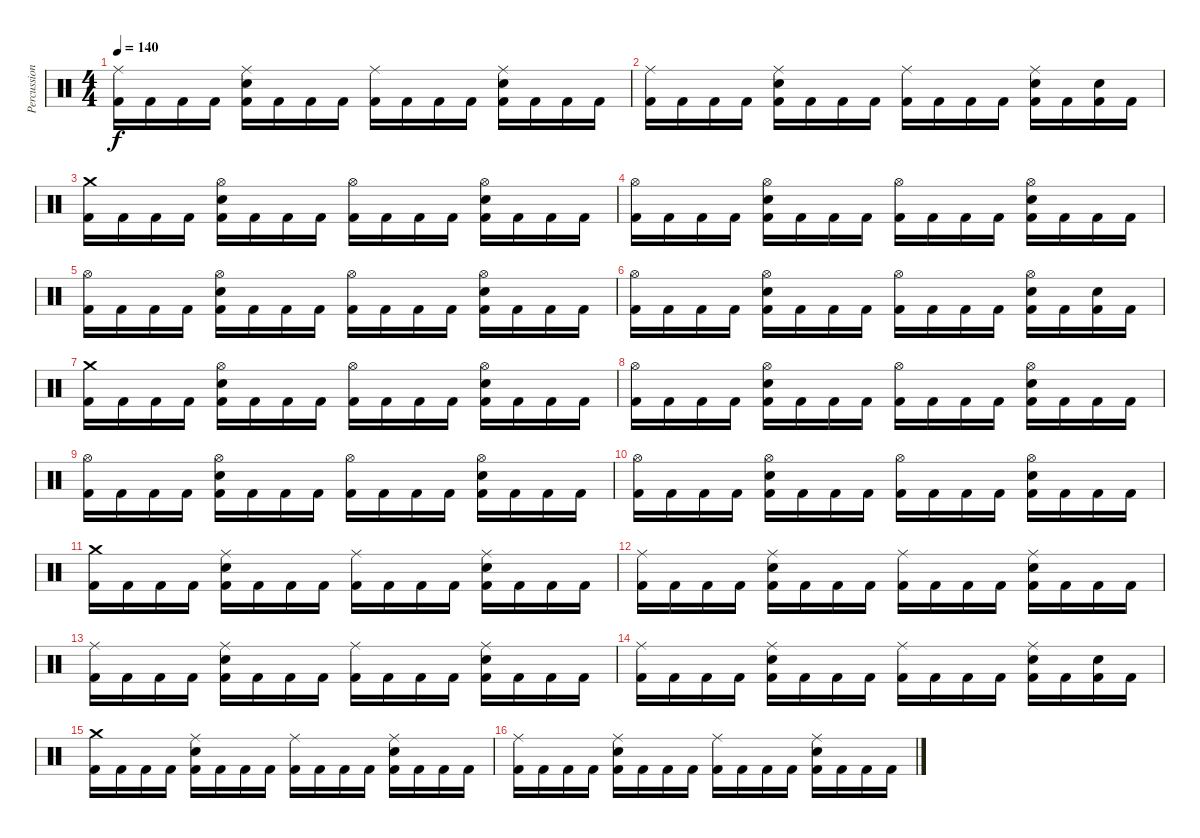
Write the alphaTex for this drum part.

\track ("Percussion" "Percussion") {instrument percussion}
\staff {score}
\articulation defaults
\ts (4 4)
\tempo 140
\clef neutral
\ks c
("Ride (middle)" "Kick (hit) 2").16{dy f} "Kick (hit) 2".16 "Kick (hit) 2".16 "Kick (hit) 2".16 ("Ride (middle)" "Electric Snare (hit)" "Kick (hit) 2").16 "Kick (hit) 2".16 "Kick (hit) 2".16 "Kick (hit) 2".16 ("Ride (middle)" "Kick (hit) 2").16 "Kick (hit) 2".16 "Kick (hit) 2".16 "Kick (hit) 2".16 ("Ride (middle)" "Electric Snare (hit)" "Kick (hit) 2").16 "Kick (hit) 2".16 "Kick (hit) 2".16 "Kick (hit) 2".16 |
("Ride (middle)" "Kick (hit) 2").16 "Kick (hit) 2".16 "Kick (hit) 2".16 "Kick (hit) 2".16 ("Ride (middle)" "Electric Snare (hit)" "Kick (hit) 2").16 "Kick (hit) 2".16 "Kick (hit) 2".16 "Kick (hit) 2".16 ("Ride (middle)" "Kick (hit) 2").16 "Kick (hit) 2".16 "Kick (hit) 2".16 "Kick (hit) 2".16 ("Ride (middle)" "Electric Snare (hit)" "Kick (hit) 2").16 "Kick (hit) 2".16 ("Electric Snare (hit)" "Kick (hit) 2").16 "Kick (hit) 2".16 |
("Crash medium (hit)" "Kick (hit) 2").16 "Kick (hit) 2".16 "Kick (hit) 2".16 "Kick (hit) 2".16 ("Hi-Hat (open)" "Electric Snare (hit)" "Kick (hit) 2").16 "Kick (hit) 2".16 "Kick (hit) 2".16 "Kick (hit) 2".16 ("Hi-Hat (open)" "Kick (hit) 2").16 "Kick (hit) 2".16 "Kick (hit) 2".16 "Kick (hit) 2".16 ("Hi-Hat (open)" "Electric Snare (hit)" "Kick (hit) 2").16 "Kick (hit) 2".16 "Kick (hit) 2".16 "Kick (hit) 2".16 |
("Hi-Hat (open)" "Kick (hit) 2").16 "Kick (hit) 2".16 "Kick (hit) 2".16 "Kick (hit) 2".16 ("Hi-Hat (open)" "Electric Snare (hit)" "Kick (hit) 2").16 "Kick (hit) 2".16 "Kick (hit) 2".16 "Kick (hit) 2".16 ("Hi-Hat (open)" "Kick (hit) 2").16 "Kick (hit) 2".16 "Kick (hit) 2".16 "Kick (hit) 2".16 ("Hi-Hat (open)" "Electric Snare (hit)" "Kick (hit) 2").16 "Kick (hit) 2".16 "Kick (hit) 2".16 "Kick (hit) 2".16 |
("Hi-Hat (open)" "Kick (hit) 2").16 "Kick (hit) 2".16 "Kick (hit) 2".16 "Kick (hit) 2".16 ("Hi-Hat (open)" "Electric Snare (hit)" "Kick (hit) 2").16 "Kick (hit) 2".16 "Kick (hit) 2".16 "Kick (hit) 2".16 ("Hi-Hat (open)" "Kick (hit) 2").16 "Kick (hit) 2".16 "Kick (hit) 2".16 "Kick (hit) 2".16 ("Hi-Hat (open)" "Electric Snare (hit)" "Kick (hit) 2").16 "Kick (hit) 2".16 "Kick (hit) 2".16 "Kick (hit) 2".16 |
("Hi-Hat (open)" "Kick (hit) 2").16 "Kick (hit) 2".16 "Kick (hit) 2".16 "Kick (hit) 2".16 ("Hi-Hat (open)" "Electric Snare (hit)" "Kick (hit) 2").16 "Kick (hit) 2".16 "Kick (hit) 2".16 "Kick (hit) 2".16 ("Hi-Hat (open)" "Kick (hit) 2").16 "Kick (hit) 2".16 "Kick (hit) 2".16 "Kick (hit) 2".16 ("Hi-Hat (open)" "Electric Snare (hit)" "Kick (hit) 2").16 "Kick (hit) 2".16 ("Electric Snare (hit)" "Kick (hit) 2").16 "Kick (hit) 2".16 |
("Crash medium (hit)" "Kick (hit) 2").16 "Kick (hit) 2".16 "Kick (hit) 2".16 "Kick (hit) 2".16 ("Hi-Hat (open)" "Electric Snare (hit)" "Kick (hit) 2").16 "Kick (hit) 2".16 "Kick (hit) 2".16 "Kick (hit) 2".16 ("Hi-Hat (open)" "Kick (hit) 2").16 "Kick (hit) 2".16 "Kick (hit) 2".16 "Kick (hit) 2".16 ("Hi-Hat (open)" "Electric Snare (hit)" "Kick (hit) 2").16 "Kick (hit) 2".16 "Kick (hit) 2".16 "Kick (hit) 2".16 |
("Hi-Hat (open)" "Kick (hit) 2").16 "Kick (hit) 2".16 "Kick (hit) 2".16 "Kick (hit) 2".16 ("Hi-Hat (open)" "Electric Snare (hit)" "Kick (hit) 2").16 "Kick (hit) 2".16 "Kick (hit) 2".16 "Kick (hit) 2".16 ("Hi-Hat (open)" "Kick (hit) 2").16 "Kick (hit) 2".16 "Kick (hit) 2".16 "Kick (hit) 2".16 ("Hi-Hat (open)" "Electric Snare (hit)" "Kick (hit) 2").16 "Kick (hit) 2".16 "Kick (hit) 2".16 "Kick (hit) 2".16 |
("Hi-Hat (open)" "Kick (hit) 2").16 "Kick (hit) 2".16 "Kick (hit) 2".16 "Kick (hit) 2".16 ("Hi-Hat (open)" "Electric Snare (hit)" "Kick (hit) 2").16 "Kick (hit) 2".16 "Kick (hit) 2".16 "Kick (hit) 2".16 ("Hi-Hat (open)" "Kick (hit) 2").16 "Kick (hit) 2".16 "Kick (hit) 2".16 "Kick (hit) 2".16 ("Hi-Hat (open)" "Electric Snare (hit)" "Kick (hit) 2").16 "Kick (hit) 2".16 "Kick (hit) 2".16 "Kick (hit) 2".16 |
("Hi-Hat (open)" "Kick (hit) 2").16 "Kick (hit) 2".16 "Kick (hit) 2".16 "Kick (hit) 2".16 ("Hi-Hat (open)" "Electric Snare (hit)" "Kick (hit) 2").16 "Kick (hit) 2".16 "Kick (hit) 2".16 "Kick (hit) 2".16 ("Hi-Hat (open)" "Kick (hit) 2").16 "Kick (hit) 2".16 "Kick (hit) 2".16 "Kick (hit) 2".16 ("Hi-Hat (open)" "Electric Snare (hit)" "Kick (hit) 2").16 "Kick (hit) 2".16 "Kick (hit) 2".16 "Kick (hit) 2".16 |
("Crash medium (hit)" "Kick (hit) 2").16 "Kick (hit) 2".16 "Kick (hit) 2".16 "Kick (hit) 2".16 ("Ride (middle)" "Electric Snare (hit)" "Kick (hit) 2").16 "Kick (hit) 2".16 "Kick (hit) 2".16 "Kick (hit) 2".16 ("Ride (middle)" "Kick (hit) 2").16 "Kick (hit) 2".16 "Kick (hit) 2".16 "Kick (hit) 2".16 ("Ride (middle)" "Electric Snare (hit)" "Kick (hit) 2").16 "Kick (hit) 2".16 "Kick (hit) 2".16 "Kick (hit) 2".16 |
("Ride (middle)" "Kick (hit) 2").16 "Kick (hit) 2".16 "Kick (hit) 2".16 "Kick (hit) 2".16 ("Ride (middle)" "Electric Snare (hit)" "Kick (hit) 2").16 "Kick (hit) 2".16 "Kick (hit) 2".16 "Kick (hit) 2".16 ("Ride (middle)" "Kick (hit) 2").16 "Kick (hit) 2".16 "Kick (hit) 2".16 "Kick (hit) 2".16 ("Ride (middle)" "Electric Snare (hit)" "Kick (hit) 2").16 "Kick (hit) 2".16 "Kick (hit) 2".16 "Kick (hit) 2".16 |
("Ride (middle)" "Kick (hit) 2").16 "Kick (hit) 2".16 "Kick (hit) 2".16 "Kick (hit) 2".16 ("Ride (middle)" "Electric Snare (hit)" "Kick (hit) 2").16 "Kick (hit) 2".16 "Kick (hit) 2".16 "Kick (hit) 2".16 ("Ride (middle)" "Kick (hit) 2").16 "Kick (hit) 2".16 "Kick (hit) 2".16 "Kick (hit) 2".16 ("Ride (middle)" "Electric Snare (hit)" "Kick (hit) 2").16 "Kick (hit) 2".16 "Kick (hit) 2".16 "Kick (hit) 2".16 |
("Ride (middle)" "Kick (hit) 2").16 "Kick (hit) 2".16 "Kick (hit) 2".16 "Kick (hit) 2".16 ("Ride (middle)" "Electric Snare (hit)" "Kick (hit) 2").16 "Kick (hit) 2".16 "Kick (hit) 2".16 "Kick (hit) 2".16 ("Ride (middle)" "Kick (hit) 2").16 "Kick (hit) 2".16 "Kick (hit) 2".16 "Kick (hit) 2".16 ("Ride (middle)" "Electric Snare (hit)" "Kick (hit) 2").16 "Kick (hit) 2".16 ("Electric Snare (hit)" "Kick (hit) 2").16 "Kick (hit) 2".16 |
("Crash medium (hit)" "Kick (hit) 2").16 "Kick (hit) 2".16 "Kick (hit) 2".16 "Kick (hit) 2".16 ("Ride (middle)" "Electric Snare (hit)" "Kick (hit) 2").16 "Kick (hit) 2".16 "Kick (hit) 2".16 "Kick (hit) 2".16 ("Ride (middle)" "Kick (hit) 2").16 "Kick (hit) 2".16 "Kick (hit) 2".16 "Kick (hit) 2".16 ("Ride (middle)" "Electric Snare (hit)" "Kick (hit) 2").16 "Kick (hit) 2".16 "Kick (hit) 2".16 "Kick (hit) 2".16 |
("Ride (middle)" "Kick (hit) 2").16 "Kick (hit) 2".16 "Kick (hit) 2".16 "Kick (hit) 2".16 ("Ride (middle)" "Electric Snare (hit)" "Kick (hit) 2").16 "Kick (hit) 2".16 "Kick (hit) 2".16 "Kick (hit) 2".16 ("Ride (middle)" "Kick (hit) 2").16 "Kick (hit) 2".16 "Kick (hit) 2".16 "Kick (hit) 2".16 ("Ride (middle)" "Electric Snare (hit)" "Kick (hit) 2").16 "Kick (hit) 2".16 "Kick (hit) 2".16 "Kick (hit) 2".16
